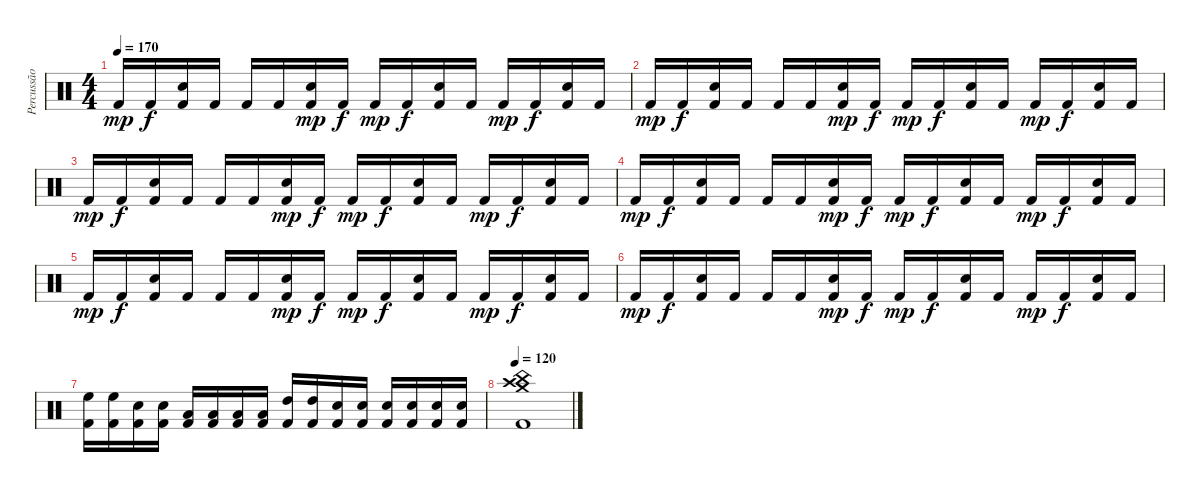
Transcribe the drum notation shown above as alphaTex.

\track ("Percussão" "Percussão") {instrument percussion}
\staff {score}
\articulation defaults
\ts (4 4)
\tempo 170
\clef neutral
\ks c "Kick (hit) 2".16{dy mp} "Kick (hit) 2".16{dy f}
("Electric Snare (hit)" "Kick (hit) 2").16 "Kick (hit) 2".16 "Kick (hit) 2".16 "Kick (hit) 2".16 ("Electric Snare (hit)" "Kick (hit) 2").16{dy mp} "Kick (hit) 2".16{dy f} "Kick (hit) 2".16{dy mp} "Kick (hit) 2".16{dy f} ("Electric Snare (hit)" "Kick (hit) 2").16 "Kick (hit) 2".16 "Kick (hit) 2".16{dy mp} "Kick (hit) 2".16{dy f} ("Electric Snare (hit)" "Kick (hit) 2").16 "Kick (hit) 2".16 |
"Kick (hit) 2".16{dy mp} "Kick (hit) 2".16{dy f} ("Electric Snare (hit)" "Kick (hit) 2").16 "Kick (hit) 2".16 "Kick (hit) 2".16 "Kick (hit) 2".16 ("Electric Snare (hit)" "Kick (hit) 2").16{dy mp} "Kick (hit) 2".16{dy f} "Kick (hit) 2".16{dy mp} "Kick (hit) 2".16{dy f} ("Electric Snare (hit)" "Kick (hit) 2").16 "Kick (hit) 2".16 "Kick (hit) 2".16{dy mp} "Kick (hit) 2".16{dy f} ("Electric Snare (hit)" "Kick (hit) 2").16 "Kick (hit) 2".16 |
"Kick (hit) 2".16{dy mp} "Kick (hit) 2".16{dy f} ("Electric Snare (hit)" "Kick (hit) 2").16 "Kick (hit) 2".16 "Kick (hit) 2".16 "Kick (hit) 2".16 ("Electric Snare (hit)" "Kick (hit) 2").16{dy mp} "Kick (hit) 2".16{dy f} "Kick (hit) 2".16{dy mp} "Kick (hit) 2".16{dy f} ("Electric Snare (hit)" "Kick (hit) 2").16 "Kick (hit) 2".16 "Kick (hit) 2".16{dy mp} "Kick (hit) 2".16{dy f} ("Electric Snare (hit)" "Kick (hit) 2").16 "Kick (hit) 2".16 |
"Kick (hit) 2".16{dy mp} "Kick (hit) 2".16{dy f} ("Electric Snare (hit)" "Kick (hit) 2").16 "Kick (hit) 2".16 "Kick (hit) 2".16 "Kick (hit) 2".16 ("Electric Snare (hit)" "Kick (hit) 2").16{dy mp} "Kick (hit) 2".16{dy f} "Kick (hit) 2".16{dy mp} "Kick (hit) 2".16{dy f} ("Electric Snare (hit)" "Kick (hit) 2").16 "Kick (hit) 2".16 "Kick (hit) 2".16{dy mp} "Kick (hit) 2".16{dy f} ("Electric Snare (hit)" "Kick (hit) 2").16 "Kick (hit) 2".16 |
"Kick (hit) 2".16{dy mp} "Kick (hit) 2".16{dy f} ("Electric Snare (hit)" "Kick (hit) 2").16 "Kick (hit) 2".16 "Kick (hit) 2".16 "Kick (hit) 2".16 ("Electric Snare (hit)" "Kick (hit) 2").16{dy mp} "Kick (hit) 2".16{dy f} "Kick (hit) 2".16{dy mp} "Kick (hit) 2".16{dy f} ("Electric Snare (hit)" "Kick (hit) 2").16 "Kick (hit) 2".16 "Kick (hit) 2".16{dy mp} "Kick (hit) 2".16{dy f} ("Electric Snare (hit)" "Kick (hit) 2").16 "Kick (hit) 2".16 |
"Kick (hit) 2".16{dy mp} "Kick (hit) 2".16{dy f} ("Electric Snare (hit)" "Kick (hit) 2").16 "Kick (hit) 2".16 "Kick (hit) 2".16 "Kick (hit) 2".16 ("Electric Snare (hit)" "Kick (hit) 2").16{dy mp} "Kick (hit) 2".16{dy f} "Kick (hit) 2".16{dy mp} "Kick (hit) 2".16{dy f} ("Electric Snare (hit)" "Kick (hit) 2").16 "Kick (hit) 2".16 "Kick (hit) 2".16{dy mp} "Kick (hit) 2".16{dy f} ("Electric Snare (hit)" "Kick (hit) 2").16 "Kick (hit) 2".16 |
("High Floor Tom (hit)" "Kick (hit) 2").16 ("High Floor Tom (hit)" "Kick (hit) 2").16 ("Electric Snare (hit)" "Kick (hit) 2").16 ("Electric Snare (hit)" "Kick (hit) 2").16 ("Low Floor Tom (hit)" "Kick (hit) 2").16 ("Low Floor Tom (hit)" "Kick (hit) 2").16 ("Low Tom (hit)" "Kick (hit) 2").16 ("Low Tom (hit)" "Kick (hit) 2").16 ("High Tom (hit)" "Kick (hit) 2").16 ("High Tom (hit)" "Kick (hit) 2").16 ("Electric Snare (hit)" "Kick (hit) 2").16 ("Electric Snare (hit)" "Kick (hit) 2").16 ("Electric Snare (hit)" "Kick (hit) 2").16 ("Electric Snare (hit)" "Kick (hit) 2").16 ("Electric Snare (hit)" "Kick (hit) 2").16 ("Electric Snare (hit)" "Kick (hit) 2").16 |
\tempo 120
("China (hit)" "Crash medium (hit)" "Crash high (hit)" "Kick (hit) 2").1
